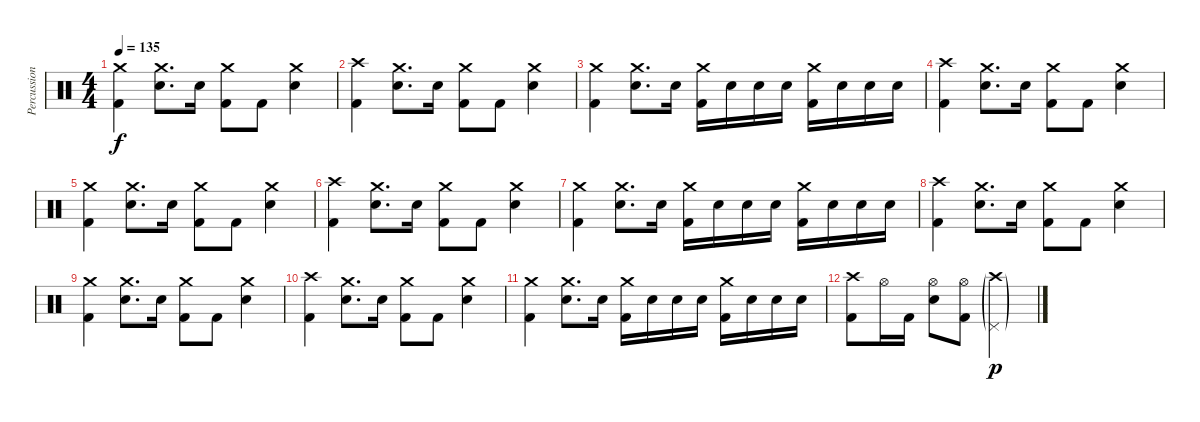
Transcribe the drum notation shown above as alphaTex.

\track ("Percussion" "Percussion") {instrument percussion}
\staff {score}
\articulation defaults
\ts (4 4)
\tempo 135
\clef neutral
\ks c
("Crash medium (hit)" "Kick (hit) 2").4{dy f} ("Crash medium (hit)" "Electric Snare (hit)").8{d} "Electric Snare (hit)".16 ("Crash medium (hit)" "Kick (hit) 2").8 "Kick (hit) 2".8 ("Crash medium (hit)" "Electric Snare (hit)").4 |
("Crash high (hit)" "Kick (hit) 2").4 ("Crash medium (hit)" "Electric Snare (hit)").8{d} "Electric Snare (hit)".16 ("Crash medium (hit)" "Kick (hit) 2").8 "Kick (hit) 2".8 ("Crash medium (hit)" "Electric Snare (hit)").4 |
("Crash medium (hit)" "Kick (hit) 2").4 ("Crash medium (hit)" "Electric Snare (hit)").8{d} "Electric Snare (hit)".16 ("Crash medium (hit)" "Kick (hit) 2").16 "Electric Snare (hit)".16 "Electric Snare (hit)".16 "Electric Snare (hit)".16 ("Crash medium (hit)" "Kick (hit) 2").16 "Electric Snare (hit)".16 "Electric Snare (hit)".16 "Electric Snare (hit)".16 |
("Crash high (hit)" "Kick (hit) 2").4 ("Crash medium (hit)" "Electric Snare (hit)").8{d} "Electric Snare (hit)".16 ("Crash medium (hit)" "Kick (hit) 2").8 "Kick (hit) 2".8 ("Crash medium (hit)" "Electric Snare (hit)").4 |
("Crash medium (hit)" "Kick (hit) 2").4 ("Crash medium (hit)" "Electric Snare (hit)").8{d} "Electric Snare (hit)".16 ("Crash medium (hit)" "Kick (hit) 2").8 "Kick (hit) 2".8 ("Crash medium (hit)" "Electric Snare (hit)").4 |
("Crash high (hit)" "Kick (hit) 2").4 ("Crash medium (hit)" "Electric Snare (hit)").8{d} "Electric Snare (hit)".16 ("Crash medium (hit)" "Kick (hit) 2").8 "Kick (hit) 2".8 ("Crash medium (hit)" "Electric Snare (hit)").4 |
("Crash medium (hit)" "Kick (hit) 2").4 ("Crash medium (hit)" "Electric Snare (hit)").8{d} "Electric Snare (hit)".16 ("Crash medium (hit)" "Kick (hit) 2").16 "Electric Snare (hit)".16 "Electric Snare (hit)".16 "Electric Snare (hit)".16 ("Crash medium (hit)" "Kick (hit) 2").16 "Electric Snare (hit)".16 "Electric Snare (hit)".16 "Electric Snare (hit)".16 |
("Crash high (hit)" "Kick (hit) 2").4 ("Crash medium (hit)" "Electric Snare (hit)").8{d} "Electric Snare (hit)".16 ("Crash medium (hit)" "Kick (hit) 2").8 "Kick (hit) 2".8 ("Crash medium (hit)" "Electric Snare (hit)").4 |
("Crash medium (hit)" "Kick (hit) 2").4 ("Crash medium (hit)" "Electric Snare (hit)").8{d} "Electric Snare (hit)".16 ("Crash medium (hit)" "Kick (hit) 2").8 "Kick (hit) 2".8 ("Crash medium (hit)" "Electric Snare (hit)").4 |
("Crash high (hit)" "Kick (hit) 2").4 ("Crash medium (hit)" "Electric Snare (hit)").8{d} "Electric Snare (hit)".16 ("Crash medium (hit)" "Kick (hit) 2").8 "Kick (hit) 2".8 ("Crash medium (hit)" "Electric Snare (hit)").4 |
("Crash medium (hit)" "Kick (hit) 2").4 ("Crash medium (hit)" "Electric Snare (hit)").8{d} "Electric Snare (hit)".16 ("Crash medium (hit)" "Kick (hit) 2").16 "Electric Snare (hit)".16 "Electric Snare (hit)".16 "Electric Snare (hit)".16 ("Crash medium (hit)" "Kick (hit) 2").16 "Electric Snare (hit)".16 "Electric Snare (hit)".16 "Electric Snare (hit)".16 |
("Crash high (hit)" "Kick (hit) 2").8 "Hi-Hat (open)".16 "Kick (hit) 2".16 ("Hi-Hat (open)" "Electric Snare (hit)").8 ("Hi-Hat (open)" "Kick (hit) 2").8 ("Crash high (hit)"{g} "Pedal Hi-Hat (hit)"{g}).2{dy p}
